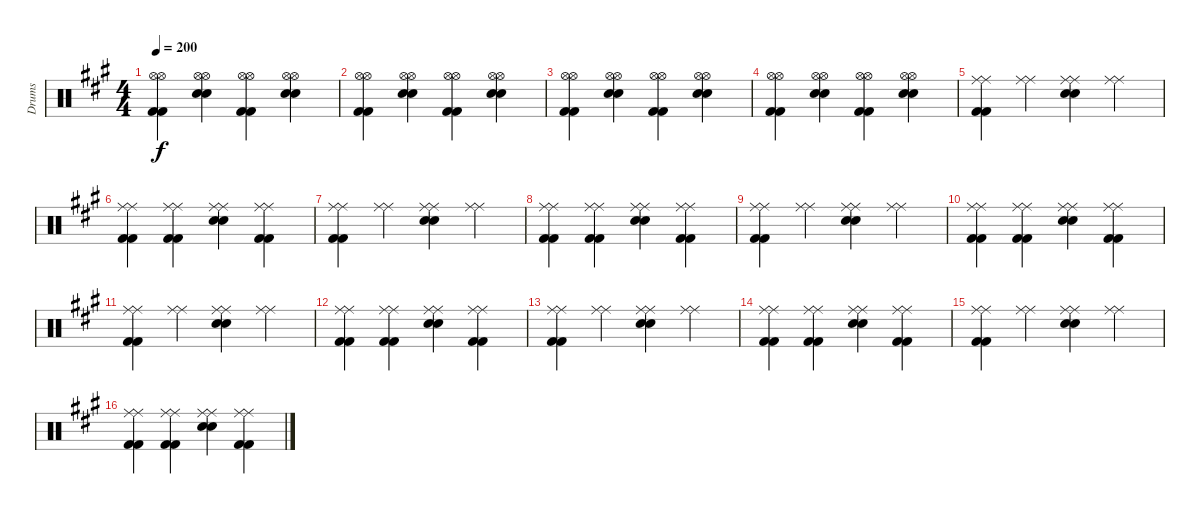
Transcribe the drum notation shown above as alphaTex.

\track ("Drums" "Drums") {instrument percussion}
\staff {score}
\articulation defaults
\ts (4 4)
\tempo 200
\clef neutral
\ks f#minor
("Hi-Hat (open)" "Hi-Hat (open)" "Kick (hit) 2" "Kick (hit) 2").4{dy f} ("Hi-Hat (open)" "Hi-Hat (open)" "Snare (hit) 2" "Snare (hit) 2").4 ("Hi-Hat (open)" "Hi-Hat (open)" "Kick (hit) 2" "Kick (hit) 2").4 ("Hi-Hat (open)" "Hi-Hat (open)" "Snare (hit) 2" "Snare (hit) 2").4 |
("Hi-Hat (open)" "Hi-Hat (open)" "Kick (hit) 2" "Kick (hit) 2").4 ("Hi-Hat (open)" "Hi-Hat (open)" "Snare (hit) 2" "Snare (hit) 2").4 ("Hi-Hat (open)" "Hi-Hat (open)" "Kick (hit) 2" "Kick (hit) 2").4 ("Hi-Hat (open)" "Hi-Hat (open)" "Snare (hit) 2" "Snare (hit) 2").4 |
("Hi-Hat (open)" "Hi-Hat (open)" "Kick (hit) 2" "Kick (hit) 2").4 ("Hi-Hat (open)" "Hi-Hat (open)" "Snare (hit) 2" "Snare (hit) 2").4 ("Hi-Hat (open)" "Hi-Hat (open)" "Kick (hit) 2" "Kick (hit) 2").4 ("Hi-Hat (open)" "Hi-Hat (open)" "Snare (hit) 2" "Snare (hit) 2").4 |
("Hi-Hat (open)" "Hi-Hat (open)" "Kick (hit) 2" "Kick (hit) 2").4 ("Hi-Hat (open)" "Hi-Hat (open)" "Snare (hit) 2" "Snare (hit) 2").4 ("Hi-Hat (open)" "Hi-Hat (open)" "Kick (hit) 2" "Kick (hit) 2").4 ("Hi-Hat (open)" "Hi-Hat (open)" "Snare (hit) 2" "Snare (hit) 2").4 |
("Ride (middle)" "Ride (middle)" "Kick (hit) 2" "Kick (hit) 2").4 ("Ride (middle)" "Ride (middle)").4 ("Ride (middle)" "Ride (middle)" "Snare (hit) 2" "Snare (hit) 2").4 ("Ride (middle)" "Ride (middle)").4 |
("Ride (middle)" "Ride (middle)" "Kick (hit) 2" "Kick (hit) 2").4 ("Ride (middle)" "Ride (middle)" "Kick (hit) 2" "Kick (hit) 2").4 ("Ride (middle)" "Ride (middle)" "Snare (hit) 2" "Snare (hit) 2").4 ("Ride (middle)" "Ride (middle)" "Kick (hit) 2" "Kick (hit) 2").4 |
("Ride (middle)" "Ride (middle)" "Kick (hit) 2" "Kick (hit) 2").4 ("Ride (middle)" "Ride (middle)").4 ("Ride (middle)" "Ride (middle)" "Snare (hit) 2" "Snare (hit) 2").4 ("Ride (middle)" "Ride (middle)").4 |
("Ride (middle)" "Ride (middle)" "Kick (hit) 2" "Kick (hit) 2").4 ("Ride (middle)" "Ride (middle)" "Kick (hit) 2" "Kick (hit) 2").4 ("Ride (middle)" "Ride (middle)" "Snare (hit) 2" "Snare (hit) 2").4 ("Ride (middle)" "Ride (middle)" "Kick (hit) 2" "Kick (hit) 2").4 |
("Ride (middle)" "Ride (middle)" "Kick (hit) 2" "Kick (hit) 2").4 ("Ride (middle)" "Ride (middle)").4 ("Ride (middle)" "Ride (middle)" "Snare (hit) 2" "Snare (hit) 2").4 ("Ride (middle)" "Ride (middle)").4 |
("Ride (middle)" "Ride (middle)" "Kick (hit) 2" "Kick (hit) 2").4 ("Ride (middle)" "Ride (middle)" "Kick (hit) 2" "Kick (hit) 2").4 ("Ride (middle)" "Ride (middle)" "Snare (hit) 2" "Snare (hit) 2").4 ("Ride (middle)" "Ride (middle)" "Kick (hit) 2" "Kick (hit) 2").4 |
("Ride (middle)" "Ride (middle)" "Kick (hit) 2" "Kick (hit) 2").4 ("Ride (middle)" "Ride (middle)").4 ("Ride (middle)" "Ride (middle)" "Snare (hit) 2" "Snare (hit) 2").4 ("Ride (middle)" "Ride (middle)").4 |
("Ride (middle)" "Ride (middle)" "Kick (hit) 2" "Kick (hit) 2").4 ("Ride (middle)" "Ride (middle)" "Kick (hit) 2" "Kick (hit) 2").4 ("Ride (middle)" "Ride (middle)" "Snare (hit) 2" "Snare (hit) 2").4 ("Ride (middle)" "Ride (middle)" "Kick (hit) 2" "Kick (hit) 2").4 |
("Ride (middle)" "Ride (middle)" "Kick (hit) 2" "Kick (hit) 2").4 ("Ride (middle)" "Ride (middle)").4 ("Ride (middle)" "Ride (middle)" "Snare (hit) 2" "Snare (hit) 2").4 ("Ride (middle)" "Ride (middle)").4 |
("Ride (middle)" "Ride (middle)" "Kick (hit) 2" "Kick (hit) 2").4 ("Ride (middle)" "Ride (middle)" "Kick (hit) 2" "Kick (hit) 2").4 ("Ride (middle)" "Ride (middle)" "Snare (hit) 2" "Snare (hit) 2").4 ("Ride (middle)" "Ride (middle)" "Kick (hit) 2" "Kick (hit) 2").4 |
("Ride (middle)" "Ride (middle)" "Kick (hit) 2" "Kick (hit) 2").4 ("Ride (middle)" "Ride (middle)").4 ("Ride (middle)" "Ride (middle)" "Snare (hit) 2" "Snare (hit) 2").4 ("Ride (middle)" "Ride (middle)").4 |
("Ride (middle)" "Ride (middle)" "Kick (hit) 2" "Kick (hit) 2").4 ("Ride (middle)" "Ride (middle)" "Kick (hit) 2" "Kick (hit) 2").4 ("Ride (middle)" "Ride (middle)" "Snare (hit) 2" "Snare (hit) 2").4 ("Ride (middle)" "Ride (middle)" "Kick (hit) 2" "Kick (hit) 2").4
